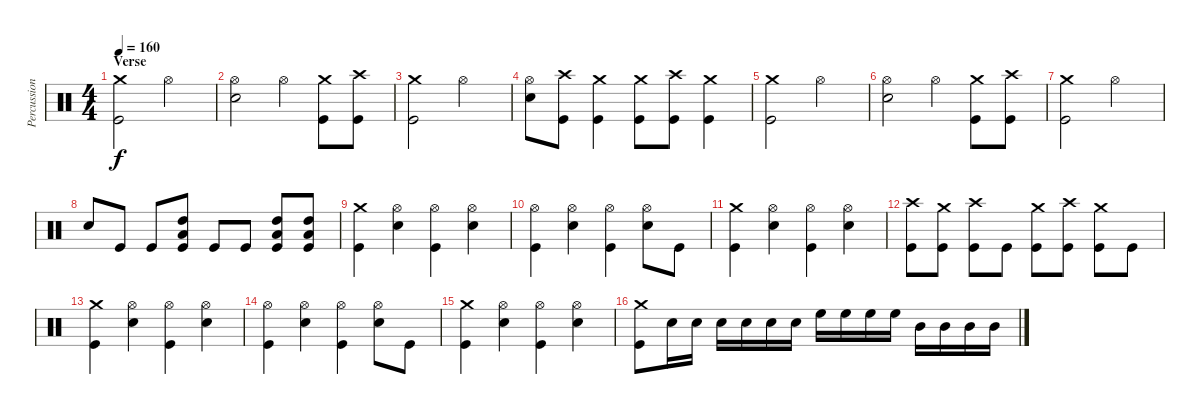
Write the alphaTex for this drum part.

\track ("Percussion" "Percussion") {instrument percussion}
\staff {score}
\articulation defaults
\ts (4 4)
\section ("" "Verse")
\tempo 160
\clef neutral
\ks c
("Crash medium (hit)" "Kick (hit)").2{dy f} "Hi-Hat (open)".2 |
("Hi-Hat (open)" "Snare (hit) 2").2 "Hi-Hat (open)".4 ("Crash medium (hit)" "Kick (hit)").8 ("Crash high (hit)" "Kick (hit)").8 |
("Crash medium (hit)" "Kick (hit)").2 "Hi-Hat (open)".2 |
("Hi-Hat (open)" "Snare (hit) 2").8 ("Crash high (hit)" "Kick (hit)").8 ("Crash medium (hit)" "Kick (hit)").4 ("Crash medium (hit)" "Kick (hit)").8 ("Crash high (hit)" "Kick (hit)").8 ("Crash medium (hit)" "Kick (hit)").4 |
("Crash medium (hit)" "Kick (hit)").2 "Hi-Hat (open)".2 |
("Hi-Hat (open)" "Snare (hit) 2").2 "Hi-Hat (open)".4 ("Crash medium (hit)" "Kick (hit)").8 ("Crash high (hit)" "Kick (hit)").8 |
("Crash medium (hit)" "Kick (hit)").2 "Hi-Hat (open)".2 |
"Snare (hit) 2".8 "Kick (hit)".8 "Kick (hit)".8 ("High Tom (hit)" "Low Tom (hit)" "Kick (hit)").8 "Kick (hit)".8 "Kick (hit)".8 ("High Tom (hit)" "Low Tom (hit)" "Kick (hit)").8 ("High Tom (hit)" "Low Tom (hit)" "Kick (hit)").8 |
("Crash medium (hit)" "Kick (hit)").4 ("Hi-Hat (open)" "Snare (hit) 2").4 ("Hi-Hat (open)" "Kick (hit)").4 ("Hi-Hat (open)" "Snare (hit) 2").4 |
("Hi-Hat (open)" "Kick (hit)").4 ("Hi-Hat (open)" "Snare (hit) 2").4 ("Hi-Hat (open)" "Kick (hit)").4 ("Hi-Hat (open)" "Snare (hit) 2").8 "Kick (hit)".8 |
("Crash medium (hit)" "Kick (hit)").4 ("Hi-Hat (open)" "Snare (hit) 2").4 ("Hi-Hat (open)" "Kick (hit)").4 ("Hi-Hat (open)" "Snare (hit) 2").4 |
("Crash high (hit)" "Kick (hit)").8 ("Crash medium (hit)" "Kick (hit)").8 ("Crash high (hit)" "Kick (hit)").8 "Kick (hit)".8 ("Crash medium (hit)" "Kick (hit)").8 ("Crash high (hit)" "Kick (hit)").8 ("Crash medium (hit)" "Kick (hit)").8 "Kick (hit)".8 |
("Crash medium (hit)" "Kick (hit)").4 ("Hi-Hat (open)" "Snare (hit) 2").4 ("Hi-Hat (open)" "Kick (hit)").4 ("Hi-Hat (open)" "Snare (hit) 2").4 |
("Hi-Hat (open)" "Kick (hit)").4 ("Hi-Hat (open)" "Snare (hit) 2").4 ("Hi-Hat (open)" "Kick (hit)").4 ("Hi-Hat (open)" "Snare (hit) 2").8 "Kick (hit)".8 |
("Crash medium (hit)" "Kick (hit)").4 ("Hi-Hat (open)" "Snare (hit) 2").4 ("Hi-Hat (open)" "Kick (hit)").4 ("Hi-Hat (open)" "Snare (hit) 2").4 |
("Crash medium (hit)" "Kick (hit)").8 "Snare (hit) 2".16 "Snare (hit) 2".16 "Snare (hit) 2".16 "Snare (hit) 2".16 "Snare (hit) 2".16 "Snare (hit) 2".16 "High Floor Tom (hit)".16 "High Floor Tom (hit)".16 "High Floor Tom (hit)".16 "High Floor Tom (hit)".16 "Mid Tom (hit)".16 "Mid Tom (hit)".16 "Mid Tom (hit)".16 "Mid Tom (hit)".16
